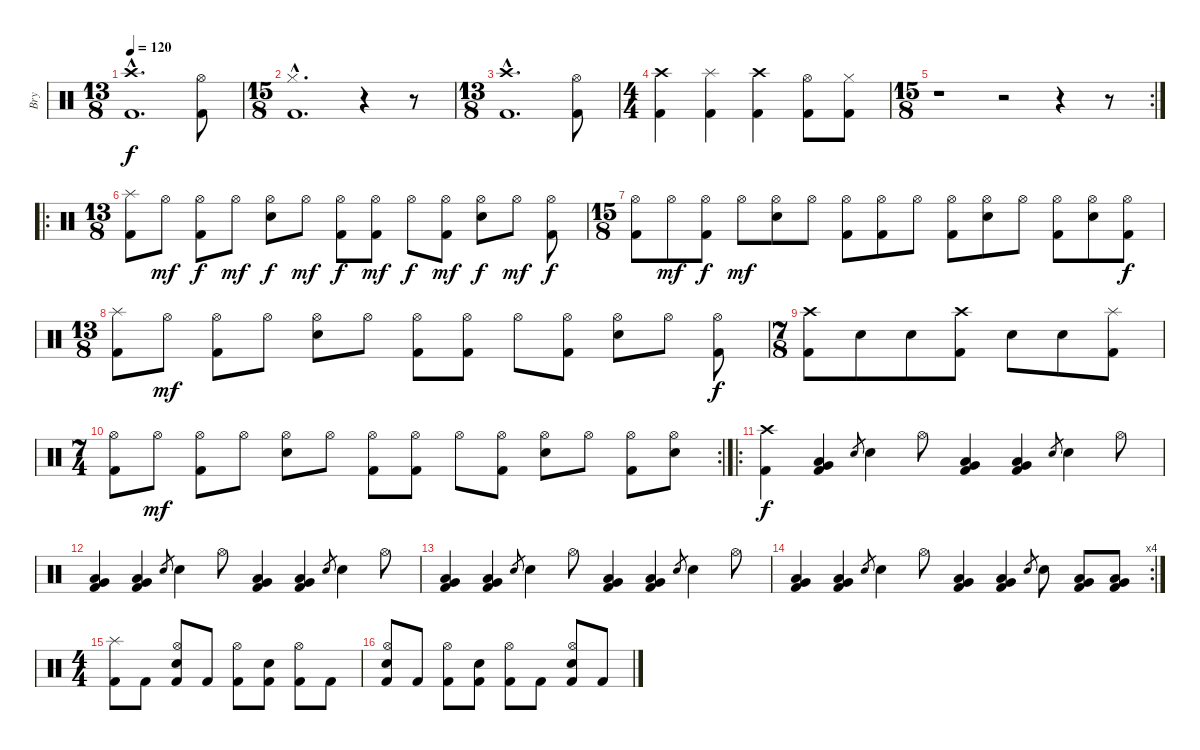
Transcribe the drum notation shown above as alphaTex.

\track ("Bry" "Bry") {instrument percussion}
\staff {score}
\articulation defaults
\ts (13 8)
\tempo 120
\clef neutral
\ks c
("Crash high (hit)"{hac} "Kick (hit) 2"{hac}).1{d dy f} ("Hi-Hat (open)" "Kick (hit) 2").8 |
\ts (15 8)
("Hi-Hat (closed)"{hac} "Kick (hit) 2"{hac}).1{d} r.4 r.8 |
\ts (13 8)
("Crash high (hit)"{hac} "Kick (hit) 2"{hac}).1{d} ("Hi-Hat (open)" "Kick (hit) 2").8 |
\ts (4 4)
("Crash high (hit)" "Kick (hit) 2").4 ("Splash (hit)" "Kick (hit) 2").4 ("Crash high (hit)" "Kick (hit) 2").4 ("Hi-Hat (open)" "Kick (hit) 2").8 ("Hi-Hat (closed)" "Kick (hit) 2").8 |
\rc 2
\ts (15 8)
r.1 r.2 r.4 r.8 |
\ro
\ts (13 8)
("Splash (hit)" "Kick (hit) 2").8 "Hi-Hat (open)".8{dy mf} ("Hi-Hat (open)" "Kick (hit) 2").8{dy f} "Hi-Hat (open)".8{dy mf} ("Hi-Hat (open)" "Snare (hit) 2").8{dy f} "Hi-Hat (open)".8{dy mf} ("Hi-Hat (open)" "Kick (hit) 2").8{dy f} ("Hi-Hat (open)" "Kick (hit) 2").8{dy mf} "Hi-Hat (open)".8{dy f} ("Hi-Hat (open)" "Kick (hit) 2").8{dy mf} ("Hi-Hat (open)" "Snare (hit) 2").8{dy f} "Hi-Hat (open)".8{dy mf} ("Hi-Hat (open)" "Kick (hit) 2").8{dy f} |
\ts (15 8)
("Hi-Hat (open)" "Kick (hit) 2").8 "Hi-Hat (open)".8{dy mf} ("Hi-Hat (open)" "Kick (hit) 2").8{dy f} "Hi-Hat (open)".8{dy mf} ("Hi-Hat (open)" "Snare (hit) 2").8 "Hi-Hat (open)".8 ("Hi-Hat (open)" "Kick (hit) 2").8 ("Hi-Hat (open)" "Kick (hit) 2").8 "Hi-Hat (open)".8 ("Hi-Hat (open)" "Kick (hit) 2").8 ("Hi-Hat (open)" "Snare (hit) 2").8 "Hi-Hat (open)".8 ("Hi-Hat (open)" "Kick (hit) 2").8 ("Hi-Hat (open)" "Snare (hit) 2").8 ("Hi-Hat (open)" "Kick (hit) 2").8{dy f} |
\ts (13 8)
("Splash (hit)" "Kick (hit) 2").8 "Hi-Hat (open)".8{dy mf} ("Hi-Hat (open)" "Kick (hit) 2").8 "Hi-Hat (open)".8 ("Hi-Hat (open)" "Snare (hit) 2").8 "Hi-Hat (open)".8 ("Hi-Hat (open)" "Kick (hit) 2").8 ("Hi-Hat (open)" "Kick (hit) 2").8 "Hi-Hat (open)".8 ("Hi-Hat (open)" "Kick (hit) 2").8 ("Hi-Hat (open)" "Snare (hit) 2").8 "Hi-Hat (open)".8 ("Hi-Hat (open)" "Kick (hit) 2").8{dy f} |
\ts (7 8)
("Crash high (hit)" "Kick (hit) 2").8 "Snare (hit) 2".8 "Snare (hit) 2".8 ("Crash high (hit)" "Kick (hit) 2").8 "Snare (hit) 2".8 "Snare (hit) 2".8 ("Splash (hit)" "Kick (hit) 2").8 |
\rc 2
\ts (7 4)
("Hi-Hat (open)" "Kick (hit) 2").8 "Hi-Hat (open)".8{dy mf} ("Hi-Hat (open)" "Kick (hit) 2").8 "Hi-Hat (open)".8 ("Hi-Hat (open)" "Snare (hit) 2").8 "Hi-Hat (open)".8 ("Hi-Hat (open)" "Kick (hit) 2").8 ("Hi-Hat (open)" "Kick (hit) 2").8 "Hi-Hat (open)".8 ("Hi-Hat (open)" "Kick (hit) 2").8 ("Hi-Hat (open)" "Snare (hit) 2").8 "Hi-Hat (open)".8 ("Hi-Hat (open)" "Kick (hit) 2").8 ("Hi-Hat (open)" "Snare (hit) 2").8 |
\ro
("Crash high (hit)" "Kick (hit) 2").4{dy f} ("Low Floor Tom (hit)" "Very Low Tom (hit)" "Kick (hit) 2").4 "Snare (hit) 2".8{gr} "Snare (hit) 2".4 "Hi-Hat (open)".8 ("Low Floor Tom (hit)" "Very Low Tom (hit)" "Kick (hit) 2").4 ("Low Floor Tom (hit)" "Very Low Tom (hit)" "Kick (hit) 2").4 "Snare (hit) 2".8{gr} "Snare (hit) 2".4 "Hi-Hat (open)".8 |
("Low Floor Tom (hit)" "Very Low Tom (hit)" "Kick (hit) 2").4 ("Low Floor Tom (hit)" "Very Low Tom (hit)" "Kick (hit) 2").4 "Snare (hit) 2".8{gr} "Snare (hit) 2".4 "Hi-Hat (open)".8 ("Low Floor Tom (hit)" "Very Low Tom (hit)" "Kick (hit) 2").4 ("Low Floor Tom (hit)" "Very Low Tom (hit)" "Kick (hit) 2").4 "Snare (hit) 2".8{gr} "Snare (hit) 2".4 "Hi-Hat (open)".8 |
("Low Floor Tom (hit)" "Very Low Tom (hit)" "Kick (hit) 2").4 ("Low Floor Tom (hit)" "Very Low Tom (hit)" "Kick (hit) 2").4 "Snare (hit) 2".8{gr} "Snare (hit) 2".4 "Hi-Hat (open)".8 ("Low Floor Tom (hit)" "Very Low Tom (hit)" "Kick (hit) 2").4 ("Low Floor Tom (hit)" "Very Low Tom (hit)" "Kick (hit) 2").4 "Snare (hit) 2".8{gr} "Snare (hit) 2".4 "Hi-Hat (open)".8 |
\rc 4
("Low Floor Tom (hit)" "Very Low Tom (hit)" "Kick (hit) 2").4 ("Low Floor Tom (hit)" "Very Low Tom (hit)" "Kick (hit) 2").4 "Snare (hit) 2".8{gr} "Snare (hit) 2".4 "Hi-Hat (open)".8 ("Low Floor Tom (hit)" "Very Low Tom (hit)" "Kick (hit) 2").4 ("Low Floor Tom (hit)" "Very Low Tom (hit)" "Kick (hit) 2").4 "Snare (hit) 2".8{gr} "Snare (hit) 2".8 ("Very Low Tom (hit)" "Low Floor Tom (hit)" "Kick (hit) 2").8 ("Very Low Tom (hit)" "Low Floor Tom (hit)" "Kick (hit) 2").8 |
\ts (4 4)
("Splash (hit)" "Kick (hit) 2").8 "Kick (hit) 2".8 ("Hi-Hat (open)" "Snare (hit) 2" "Kick (hit) 2").8 "Kick (hit) 2".8 ("Hi-Hat (open)" "Kick (hit) 2").8 ("Snare (hit) 2" "Kick (hit) 2").8 ("Hi-Hat (open)" "Kick (hit) 2").8 "Kick (hit) 2".8 |
("Hi-Hat (open)" "Snare (hit) 2" "Kick (hit) 2").8 "Kick (hit) 2".8 ("Hi-Hat (open)" "Kick (hit) 2").8 ("Snare (hit) 2" "Kick (hit) 2").8 ("Hi-Hat (open)" "Kick (hit) 2").8 "Kick (hit) 2".8 ("Hi-Hat (open)" "Snare (hit) 2" "Kick (hit) 2").8 "Kick (hit) 2".8
